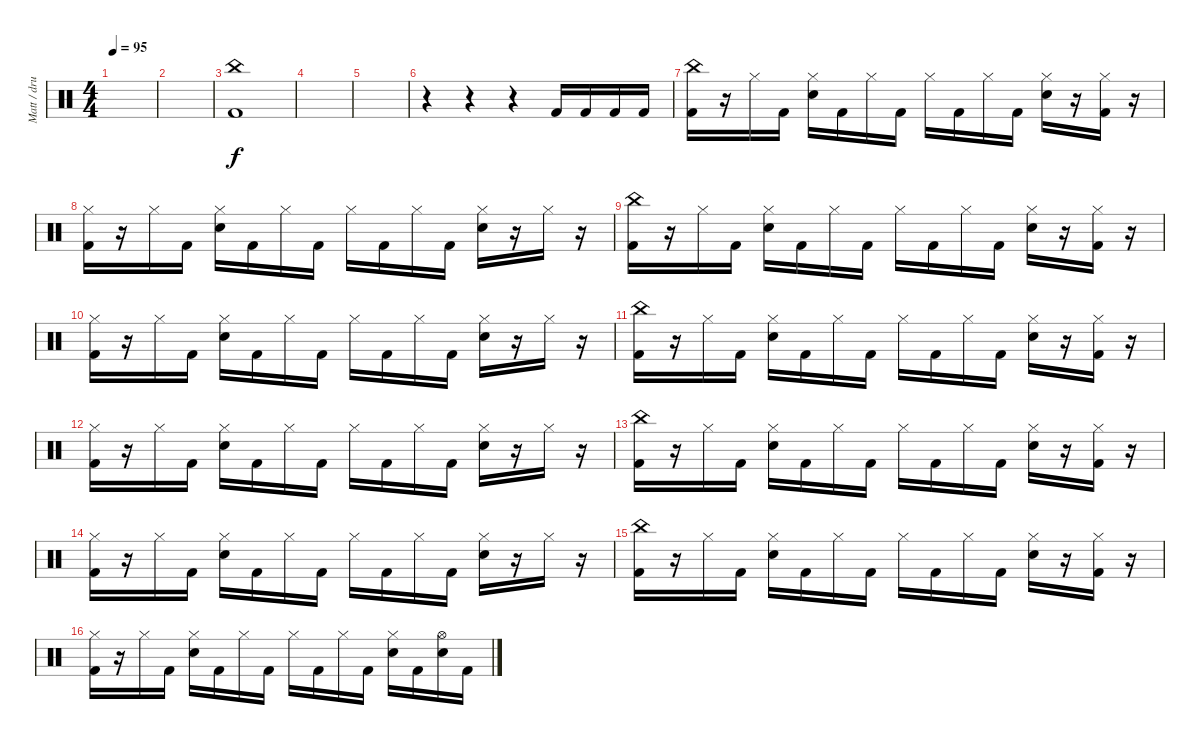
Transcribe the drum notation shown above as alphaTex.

\track ("Matt / drums" "Matt / dru") {instrument percussion}
\staff {score}
\articulation defaults
\ts (4 4)
\tempo 95
\clef neutral
\ks c
|
|
("Kick (hit) 2" "China (hit)").1{volume 11} |
|
|
r.4 r.4 r.4 "Kick (hit) 2".16 "Kick (hit) 2".16 "Kick (hit) 2".16 "Kick (hit) 2".16 |
("China (hit)" "Kick (hit) 2").16 r.16 "Hi-Hat (closed)".16 "Kick (hit) 2".16 ("Hi-Hat (closed)" "Snare (hit) 2").16 "Kick (hit) 2".16 "Hi-Hat (closed)".16 "Kick (hit) 2".16 "Hi-Hat (closed)".16 "Kick (hit) 2".16 "Hi-Hat (closed)".16 "Kick (hit) 2".16 ("Hi-Hat (closed)" "Snare (hit) 2").16 r.16 ("Hi-Hat (closed)" "Kick (hit) 2").16 r.16 |
("Hi-Hat (closed)" "Kick (hit) 2").16 r.16 "Hi-Hat (closed)".16 "Kick (hit) 2".16 ("Hi-Hat (closed)" "Snare (hit) 2").16 "Kick (hit) 2".16 "Hi-Hat (closed)".16 "Kick (hit) 2".16 "Hi-Hat (closed)".16 "Kick (hit) 2".16 "Hi-Hat (closed)".16 "Kick (hit) 2".16 ("Hi-Hat (closed)" "Snare (hit) 2").16 r.16 "Hi-Hat (closed)".16 r.16 |
("China (hit)" "Kick (hit) 2").16 r.16 "Hi-Hat (closed)".16 "Kick (hit) 2".16 ("Hi-Hat (closed)" "Snare (hit) 2").16 "Kick (hit) 2".16 "Hi-Hat (closed)".16 "Kick (hit) 2".16 "Hi-Hat (closed)".16 "Kick (hit) 2".16 "Hi-Hat (closed)".16 "Kick (hit) 2".16 ("Hi-Hat (closed)" "Snare (hit) 2").16 r.16 ("Hi-Hat (closed)" "Kick (hit) 2").16 r.16 |
("Hi-Hat (closed)" "Kick (hit) 2").16 r.16 "Hi-Hat (closed)".16 "Kick (hit) 2".16 ("Hi-Hat (closed)" "Snare (hit) 2").16 "Kick (hit) 2".16 "Hi-Hat (closed)".16 "Kick (hit) 2".16 "Hi-Hat (closed)".16 "Kick (hit) 2".16 "Hi-Hat (closed)".16 "Kick (hit) 2".16 ("Hi-Hat (closed)" "Snare (hit) 2").16 r.16 "Hi-Hat (closed)".16 r.16 |
("China (hit)" "Kick (hit) 2").16 r.16 "Hi-Hat (closed)".16 "Kick (hit) 2".16 ("Hi-Hat (closed)" "Snare (hit) 2").16 "Kick (hit) 2".16 "Hi-Hat (closed)".16 "Kick (hit) 2".16 "Hi-Hat (closed)".16 "Kick (hit) 2".16 "Hi-Hat (closed)".16 "Kick (hit) 2".16 ("Hi-Hat (closed)" "Snare (hit) 2").16 r.16 ("Hi-Hat (closed)" "Kick (hit) 2").16 r.16 |
("Hi-Hat (closed)" "Kick (hit) 2").16 r.16 "Hi-Hat (closed)".16 "Kick (hit) 2".16 ("Hi-Hat (closed)" "Snare (hit) 2").16 "Kick (hit) 2".16 "Hi-Hat (closed)".16 "Kick (hit) 2".16 "Hi-Hat (closed)".16 "Kick (hit) 2".16 "Hi-Hat (closed)".16 "Kick (hit) 2".16 ("Hi-Hat (closed)" "Snare (hit) 2").16 r.16 "Hi-Hat (closed)".16 r.16 |
("China (hit)" "Kick (hit) 2").16 r.16 "Hi-Hat (closed)".16 "Kick (hit) 2".16 ("Hi-Hat (closed)" "Snare (hit) 2").16 "Kick (hit) 2".16 "Hi-Hat (closed)".16 "Kick (hit) 2".16 "Hi-Hat (closed)".16 "Kick (hit) 2".16 "Hi-Hat (closed)".16 "Kick (hit) 2".16 ("Hi-Hat (closed)" "Snare (hit) 2").16 r.16 ("Hi-Hat (closed)" "Kick (hit) 2").16 r.16 |
("Hi-Hat (closed)" "Kick (hit) 2").16 r.16 "Hi-Hat (closed)".16 "Kick (hit) 2".16 ("Hi-Hat (closed)" "Snare (hit) 2").16 "Kick (hit) 2".16 "Hi-Hat (closed)".16 "Kick (hit) 2".16 "Hi-Hat (closed)".16 "Kick (hit) 2".16 "Hi-Hat (closed)".16 "Kick (hit) 2".16 ("Hi-Hat (closed)" "Snare (hit) 2").16 r.16 "Hi-Hat (closed)".16 r.16 |
("China (hit)" "Kick (hit) 2").16 r.16 "Hi-Hat (closed)".16 "Kick (hit) 2".16 ("Hi-Hat (closed)" "Snare (hit) 2").16 "Kick (hit) 2".16 "Hi-Hat (closed)".16 "Kick (hit) 2".16 "Hi-Hat (closed)".16 "Kick (hit) 2".16 "Hi-Hat (closed)".16 "Kick (hit) 2".16 ("Hi-Hat (closed)" "Snare (hit) 2").16 r.16 ("Hi-Hat (closed)" "Kick (hit) 2").16 r.16 |
("Hi-Hat (closed)" "Kick (hit) 2").16 r.16 "Hi-Hat (closed)".16 "Kick (hit) 2".16 ("Hi-Hat (closed)" "Snare (hit) 2").16 "Kick (hit) 2".16 "Hi-Hat (closed)".16 "Kick (hit) 2".16 "Hi-Hat (closed)".16 "Kick (hit) 2".16 "Hi-Hat (closed)".16 "Kick (hit) 2".16 ("Hi-Hat (closed)" "Snare (hit) 2").16 "Kick (hit) 2".16 ("Hi-Hat (open)" "Snare (hit) 2").16 "Kick (hit) 2".16
